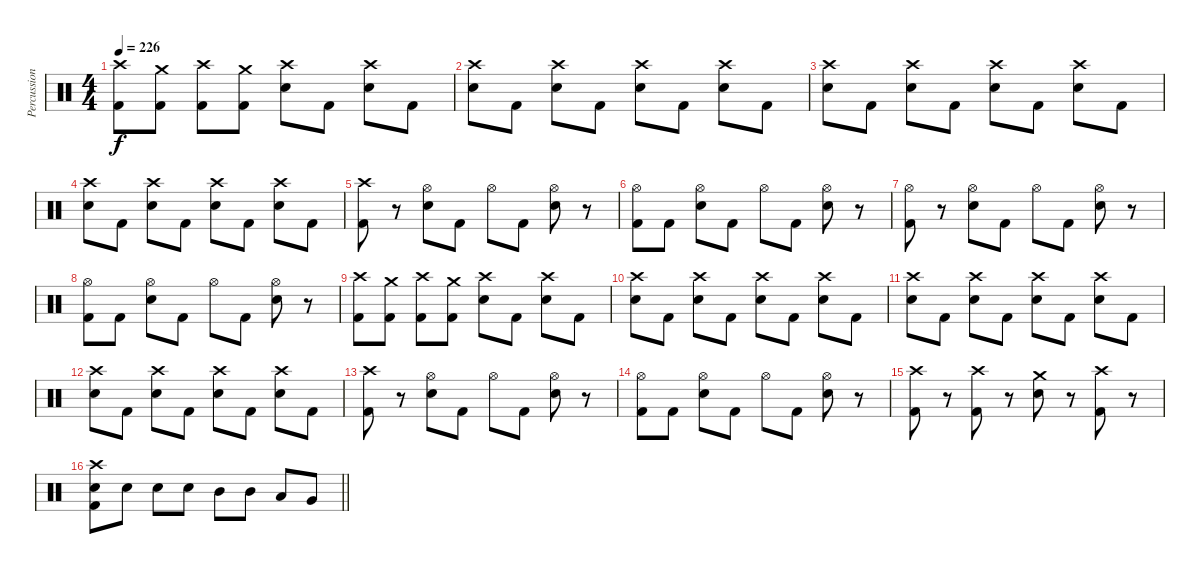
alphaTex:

\track ("Percussion" "Percussion") {instrument percussion}
\staff {score}
\articulation defaults
\ts (4 4)
\section ("" "")
\tempo 226
\clef neutral
\ks c
("Crash high (hit)" "Kick (hit) 2").8{dy f} ("Crash medium (hit)" "Kick (hit) 2").8 ("Crash high (hit)" "Kick (hit) 2").8 ("Crash medium (hit)" "Kick (hit) 2").8 ("Crash high (hit)" "Snare (hit) 2").8 "Kick (hit) 2".8 ("Crash high (hit)" "Snare (hit) 2").8 "Kick (hit) 2".8 |
("Crash high (hit)" "Snare (hit) 2").8 "Kick (hit) 2".8 ("Crash high (hit)" "Snare (hit) 2").8 "Kick (hit) 2".8 ("Crash high (hit)" "Snare (hit) 2").8 "Kick (hit) 2".8 ("Crash high (hit)" "Snare (hit) 2").8 "Kick (hit) 2".8 |
("Crash high (hit)" "Snare (hit) 2").8 "Kick (hit) 2".8 ("Crash high (hit)" "Snare (hit) 2").8 "Kick (hit) 2".8 ("Crash high (hit)" "Snare (hit) 2").8 "Kick (hit) 2".8 ("Crash high (hit)" "Snare (hit) 2").8 "Kick (hit) 2".8 |
("Crash high (hit)" "Snare (hit) 2").8 "Kick (hit) 2".8 ("Crash high (hit)" "Snare (hit) 2").8 "Kick (hit) 2".8 ("Crash high (hit)" "Snare (hit) 2").8 "Kick (hit) 2".8 ("Crash high (hit)" "Snare (hit) 2").8 "Kick (hit) 2".8 |
("Crash high (hit)" "Kick (hit) 2").8 r.8 ("Hi-Hat (open)" "Snare (hit) 2").8 "Kick (hit) 2".8 "Hi-Hat (open)".8 "Kick (hit) 2".8 ("Hi-Hat (open)" "Snare (hit) 2").8 r.8 |
("Hi-Hat (open)" "Kick (hit) 2").8 "Kick (hit) 2".8 ("Hi-Hat (open)" "Snare (hit) 2").8 "Kick (hit) 2".8 "Hi-Hat (open)".8 "Kick (hit) 2".8 ("Hi-Hat (open)" "Snare (hit) 2").8 r.8 |
("Hi-Hat (open)" "Kick (hit) 2").8 r.8 ("Hi-Hat (open)" "Snare (hit) 2").8 "Kick (hit) 2".8 "Hi-Hat (open)".8 "Kick (hit) 2".8 ("Hi-Hat (open)" "Snare (hit) 2").8 r.8 |
("Hi-Hat (open)" "Kick (hit) 2").8 "Kick (hit) 2".8 ("Hi-Hat (open)" "Snare (hit) 2").8 "Kick (hit) 2".8 "Hi-Hat (open)".8 "Kick (hit) 2".8 ("Hi-Hat (open)" "Snare (hit) 2").8 r.8 |
("Crash high (hit)" "Kick (hit) 2").8 ("Crash medium (hit)" "Kick (hit) 2").8 ("Crash high (hit)" "Kick (hit) 2").8 ("Crash medium (hit)" "Kick (hit) 2").8 ("Crash high (hit)" "Snare (hit) 2").8 "Kick (hit) 2".8 ("Crash high (hit)" "Snare (hit) 2").8 "Kick (hit) 2".8 |
("Crash high (hit)" "Snare (hit) 2").8 "Kick (hit) 2".8 ("Crash high (hit)" "Snare (hit) 2").8 "Kick (hit) 2".8 ("Crash high (hit)" "Snare (hit) 2").8 "Kick (hit) 2".8 ("Crash high (hit)" "Snare (hit) 2").8 "Kick (hit) 2".8 |
("Crash high (hit)" "Snare (hit) 2").8 "Kick (hit) 2".8 ("Crash high (hit)" "Snare (hit) 2").8 "Kick (hit) 2".8 ("Crash high (hit)" "Snare (hit) 2").8 "Kick (hit) 2".8 ("Crash high (hit)" "Snare (hit) 2").8 "Kick (hit) 2".8 |
("Crash high (hit)" "Snare (hit) 2").8 "Kick (hit) 2".8 ("Crash high (hit)" "Snare (hit) 2").8 "Kick (hit) 2".8 ("Crash high (hit)" "Snare (hit) 2").8 "Kick (hit) 2".8 ("Crash high (hit)" "Snare (hit) 2").8 "Kick (hit) 2".8 |
("Crash high (hit)" "Kick (hit) 2").8 r.8 ("Hi-Hat (open)" "Snare (hit) 2").8 "Kick (hit) 2".8 "Hi-Hat (open)".8 "Kick (hit) 2".8 ("Hi-Hat (open)" "Snare (hit) 2").8 r.8 |
("Hi-Hat (open)" "Kick (hit) 2").8 "Kick (hit) 2".8 ("Hi-Hat (open)" "Snare (hit) 2").8 "Kick (hit) 2".8 "Hi-Hat (open)".8 "Kick (hit) 2".8 ("Hi-Hat (open)" "Snare (hit) 2").8 r.8 |
("Crash high (hit)" "Kick (hit) 2").8 r.8 ("Crash high (hit)" "Kick (hit) 2").8 r.8 ("Crash medium (hit)" "Snare (hit) 2").8 r.8 ("Crash high (hit)" "Kick (hit) 2").8 r.8 |
\barLineRight lightlight
("Crash high (hit)" "Snare (hit) 2" "Kick (hit) 2").8 "Snare (hit) 2".8 "Snare (hit) 2".8 "Snare (hit) 2".8 "Mid Tom (hit)".8 "Mid Tom (hit)".8 "Low Tom (hit)".8 "Very Low Tom (hit)".8
